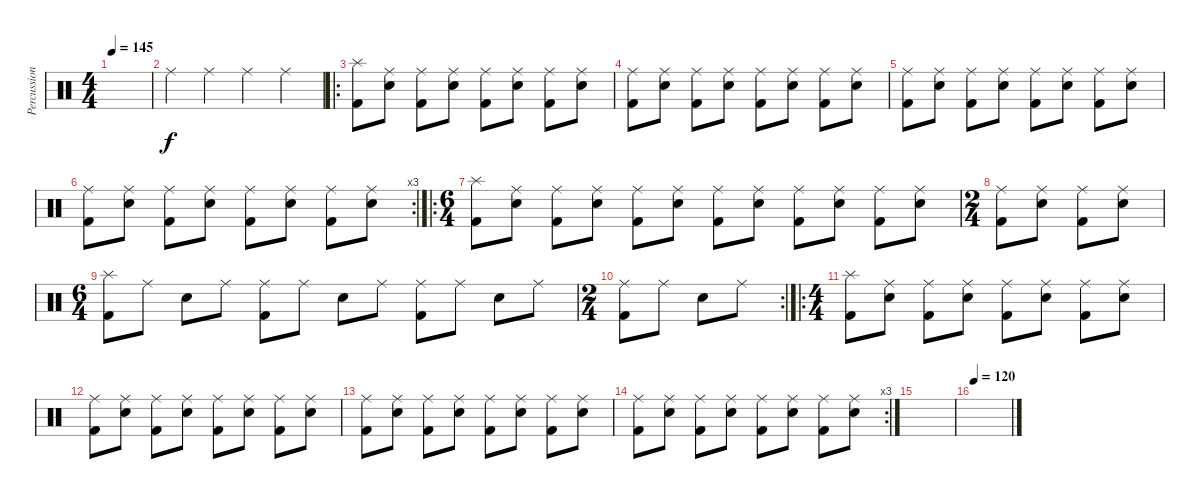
\track ("Percussions" "Percussion") {instrument percussion}
\staff {score}
\articulation defaults
\ts (4 4)
\tempo 145
\clef neutral
\ks c
|
"Ride (middle)".4 "Ride (middle)".4 "Ride (middle)".4 "Ride (middle)".4 |
\ro
("Splash (hit)" "Kick (hit) 2").8 ("Ride (middle)" "Electric Snare (hit)").8 ("Ride (middle)" "Kick (hit) 2").8 ("Ride (middle)" "Electric Snare (hit)").8 ("Ride (middle)" "Kick (hit) 2").8 ("Ride (middle)" "Electric Snare (hit)").8 ("Ride (middle)" "Kick (hit) 2").8 ("Ride (middle)" "Electric Snare (hit)").8 |
("Ride (middle)" "Kick (hit) 2").8 ("Ride (middle)" "Electric Snare (hit)").8 ("Ride (middle)" "Kick (hit) 2").8 ("Ride (middle)" "Electric Snare (hit)").8 ("Ride (middle)" "Kick (hit) 2").8 ("Ride (middle)" "Electric Snare (hit)").8 ("Ride (middle)" "Kick (hit) 2").8 ("Ride (middle)" "Electric Snare (hit)").8 |
("Ride (middle)" "Kick (hit) 2").8 ("Ride (middle)" "Electric Snare (hit)").8 ("Ride (middle)" "Kick (hit) 2").8 ("Ride (middle)" "Electric Snare (hit)").8 ("Ride (middle)" "Kick (hit) 2").8 ("Ride (middle)" "Electric Snare (hit)").8 ("Ride (middle)" "Kick (hit) 2").8 ("Ride (middle)" "Electric Snare (hit)").8 |
\rc 3
("Ride (middle)" "Kick (hit) 2").8 ("Ride (middle)" "Electric Snare (hit)").8 ("Ride (middle)" "Kick (hit) 2").8 ("Ride (middle)" "Electric Snare (hit)").8 ("Ride (middle)" "Kick (hit) 2").8 ("Ride (middle)" "Electric Snare (hit)").8 ("Ride (middle)" "Kick (hit) 2").8 ("Ride (middle)" "Electric Snare (hit)").8 |
\ro
\ts (6 4)
("Splash (hit)" "Kick (hit) 2").8 ("Ride (middle)" "Electric Snare (hit)").8 ("Ride (middle)" "Kick (hit) 2").8 ("Ride (middle)" "Electric Snare (hit)").8 ("Ride (middle)" "Kick (hit) 2").8 ("Ride (middle)" "Electric Snare (hit)").8 ("Ride (middle)" "Kick (hit) 2").8 ("Ride (middle)" "Electric Snare (hit)").8 ("Ride (middle)" "Kick (hit) 2").8 ("Ride (middle)" "Electric Snare (hit)").8 ("Ride (middle)" "Kick (hit) 2").8 ("Ride (middle)" "Electric Snare (hit)").8 |
\ts (2 4)
("Ride (middle)" "Kick (hit) 2").8 ("Ride (middle)" "Electric Snare (hit)").8 ("Ride (middle)" "Kick (hit) 2").8 ("Ride (middle)" "Electric Snare (hit)").8 |
\ts (6 4)
("Splash (hit)" "Kick (hit) 2").8 "Ride (middle)".8 "Electric Snare (hit)".8 "Ride (middle)".8 ("Ride (middle)" "Kick (hit) 2").8 "Ride (middle)".8 "Electric Snare (hit)".8 "Ride (middle)".8 ("Ride (middle)" "Kick (hit) 2").8 "Ride (middle)".8 "Electric Snare (hit)".8 "Ride (middle)".8 |
\rc 2
\ts (2 4)
("Ride (middle)" "Kick (hit) 2").8 "Ride (middle)".8 "Electric Snare (hit)".8 "Ride (middle)".8 |
\ro
\ts (4 4)
("Splash (hit)" "Kick (hit) 2").8 ("Ride (middle)" "Electric Snare (hit)").8 ("Ride (middle)" "Kick (hit) 2").8 ("Ride (middle)" "Electric Snare (hit)").8 ("Ride (middle)" "Kick (hit) 2").8 ("Ride (middle)" "Electric Snare (hit)").8 ("Ride (middle)" "Kick (hit) 2").8 ("Ride (middle)" "Electric Snare (hit)").8 |
("Ride (middle)" "Kick (hit) 2").8 ("Ride (middle)" "Electric Snare (hit)").8 ("Ride (middle)" "Kick (hit) 2").8 ("Ride (middle)" "Electric Snare (hit)").8 ("Ride (middle)" "Kick (hit) 2").8 ("Ride (middle)" "Electric Snare (hit)").8 ("Ride (middle)" "Kick (hit) 2").8 ("Ride (middle)" "Electric Snare (hit)").8 |
("Ride (middle)" "Kick (hit) 2").8 ("Ride (middle)" "Electric Snare (hit)").8 ("Ride (middle)" "Kick (hit) 2").8 ("Ride (middle)" "Electric Snare (hit)").8 ("Ride (middle)" "Kick (hit) 2").8 ("Ride (middle)" "Electric Snare (hit)").8 ("Ride (middle)" "Kick (hit) 2").8 ("Ride (middle)" "Electric Snare (hit)").8 |
\rc 3
("Ride (middle)" "Kick (hit) 2").8 ("Ride (middle)" "Electric Snare (hit)").8 ("Ride (middle)" "Kick (hit) 2").8 ("Ride (middle)" "Electric Snare (hit)").8 ("Ride (middle)" "Kick (hit) 2").8 ("Ride (middle)" "Electric Snare (hit)").8 ("Ride (middle)" "Kick (hit) 2").8 ("Ride (middle)" "Electric Snare (hit)").8 |
|
\tempo 120
